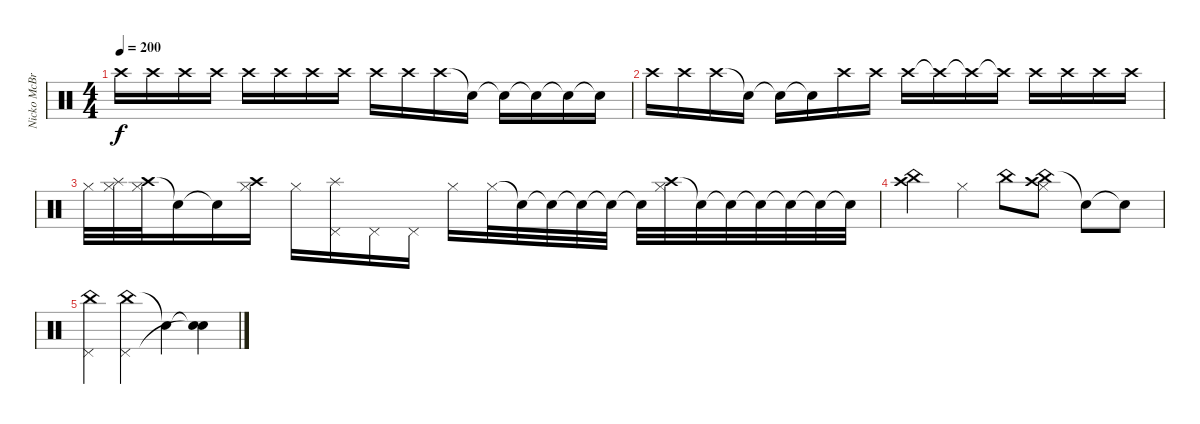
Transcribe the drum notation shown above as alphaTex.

\track ("Nicko McBrain" "Nicko McBr") {instrument percussion}
\staff {score}
\articulation defaults
\ts (4 4)
\tempo 200
\clef neutral
\ks c "Crash high (hit)".16{dy f} "Crash high (hit)".16 "Crash high (hit)".16 "Crash high (hit)".16 "Crash high (hit)".16 "Crash high (hit)".16 "Crash high (hit)".16 "Crash high (hit)".16 "Crash high (hit)".16 "Crash high (hit)".16 "Crash high (hit)".16 "Snare (hit)"{t}.16 "Snare (hit)"{t}.16 "Snare (hit)"{t}.16 "Snare (hit)"{t}.16 "Snare (hit)"{t}.16
|
"Crash high (hit)".16 "Crash high (hit)".16 "Crash high (hit)".16 "Snare (hit)"{t}.16 "Snare (hit)"{t}.16 "Snare (hit)"{t}.16 "Crash high (hit)".16 "Crash high (hit)".16 "Crash high (hit)".16 "Crash high (hit)"{t}.16 "Crash high (hit)"{t}.16 "Crash high (hit)"{t}.16 "Crash high (hit)".16 "Crash high (hit)".16 "Crash high (hit)".16 "Crash high (hit)".16 |
"Hi-Hat (closed)".32 ("Splash (hit)" "Hi-Hat (closed)").32 ("Crash high (hit)" "Hi-Hat (closed)").32 "Snare (hit)"{t}.16 "Snare (hit)"{t}.16 ("Crash high (hit)" "Hi-Hat (closed)").16 "Hi-Hat (closed)".16 ("Splash (hit)" "Pedal Hi-Hat (hit)").16 "Pedal Hi-Hat (hit)".16 "Pedal Hi-Hat (hit)".16 "Hi-Hat (closed)".16 "Hi-Hat (closed)".32 "Snare (hit)"{t}.32 "Snare (hit)"{t}.32 "Snare (hit)"{t}.32 "Snare (hit)"{t}.32 "Snare (hit)"{t}.32 ("Crash high (hit)" "Hi-Hat (closed)").32 "Snare (hit)"{t}.32 "Snare (hit)"{t}.32 "Snare (hit)"{t}.32 "Snare (hit)"{t}.32 "Snare (hit)"{t}.32 "Snare (hit)"{t}.32 |
("China (hit)" "Crash high (hit)").4 "Hi-Hat (closed)".4 "China (hit)".8 ("China (hit)" "Hi-Hat (closed)" "Crash high (hit)").8 "Snare (hit)"{t}.8 "Snare (hit)"{t}.8 |
("China (hit)" "Pedal Hi-Hat (hit)").4 ("China (hit)" "Pedal Hi-Hat (hit)").4 "Snare (hit)"{t}.4 ("Snare (hit)"{t} "Snare (hit)"{t}).4
